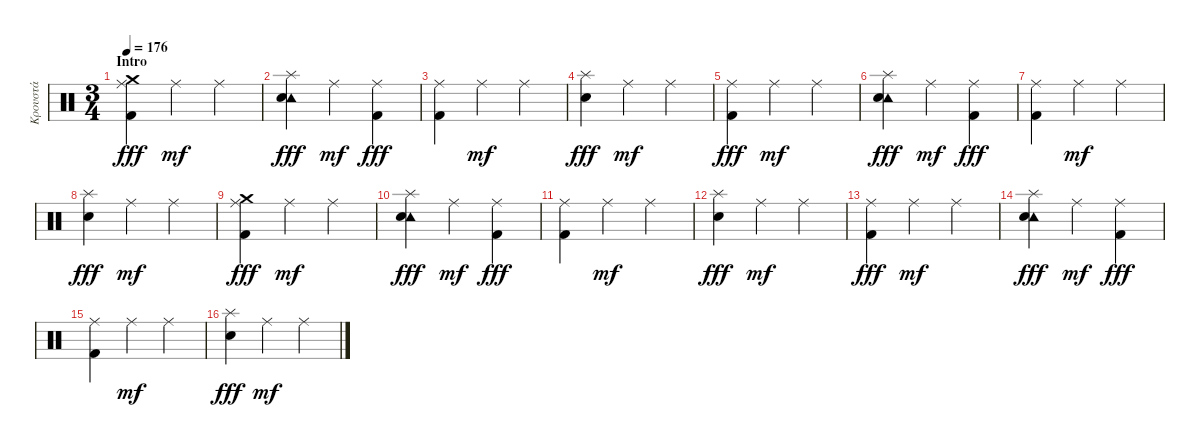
\track ("Κρουστά" "Κρουστά") {instrument percussion}
\staff {score}
\articulation defaults
\ts (3 4)
\section ("" "Intro")
\tempo 176
\clef neutral
\ks c
("Crash medium (hit)" "Ride (middle)" "Kick (hit) 2").4{dy fff} "Ride (middle)".4{dy mf} "Ride (middle)".4 |
("Splash (hit)" "Tambourine (hit)" "Snare (hit) 2").4{dy fff} "Ride (middle)".4{dy mf} ("Ride (middle)" "Kick (hit) 2").4{dy fff} |
("Ride (middle)" "Kick (hit) 2").4 "Ride (middle)".4{dy mf} "Ride (middle)".4 |
("Splash (hit)" "Snare (hit) 2").4{dy fff} "Ride (middle)".4{dy mf} "Ride (middle)".4 |
("Ride (middle)" "Kick (hit) 2").4{dy fff} "Ride (middle)".4{dy mf} "Ride (middle)".4 |
("Splash (hit)" "Tambourine (hit)" "Snare (hit) 2").4{dy fff} "Ride (middle)".4{dy mf} ("Ride (middle)" "Kick (hit) 2").4{dy fff} |
("Ride (middle)" "Kick (hit) 2").4 "Ride (middle)".4{dy mf} "Ride (middle)".4 |
("Splash (hit)" "Snare (hit) 2").4{dy fff} "Ride (middle)".4{dy mf} "Ride (middle)".4 |
("Crash medium (hit)" "Ride (middle)" "Kick (hit) 2").4{dy fff} "Ride (middle)".4{dy mf} "Ride (middle)".4 |
("Splash (hit)" "Tambourine (hit)" "Snare (hit) 2").4{dy fff} "Ride (middle)".4{dy mf} ("Ride (middle)" "Kick (hit) 2").4{dy fff} |
("Ride (middle)" "Kick (hit) 2").4 "Ride (middle)".4{dy mf} "Ride (middle)".4 |
("Splash (hit)" "Snare (hit) 2").4{dy fff} "Ride (middle)".4{dy mf} "Ride (middle)".4 |
("Ride (middle)" "Kick (hit) 2").4{dy fff} "Ride (middle)".4{dy mf} "Ride (middle)".4 |
("Splash (hit)" "Tambourine (hit)" "Snare (hit) 2").4{dy fff} "Ride (middle)".4{dy mf} ("Ride (middle)" "Kick (hit) 2").4{dy fff} |
("Ride (middle)" "Kick (hit) 2").4 "Ride (middle)".4{dy mf} "Ride (middle)".4 |
("Splash (hit)" "Snare (hit) 2").4{dy fff} "Ride (middle)".4{dy mf} "Ride (middle)".4
